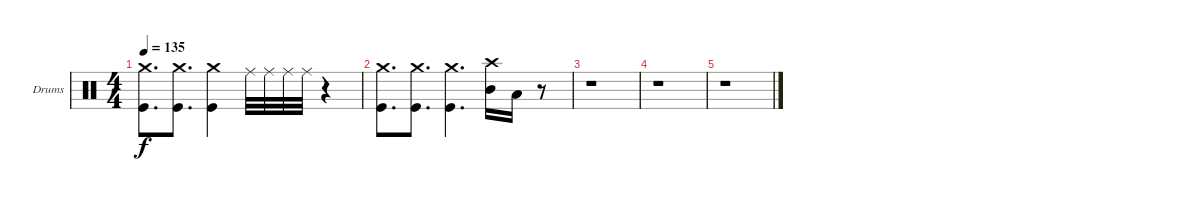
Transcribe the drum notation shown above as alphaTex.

\bracketExtendMode groupsimilarinstruments
\firstSystemTrackNameOrientation horizontal
\otherSystemsTrackNameOrientation horizontal
\track ("Drumkit" "Drums") {instrument percussion}
\staff {score}
\articulation defaults
\ts (4 4)
\tempo 135
\clef neutral
\ks c
("Kick (hit)" "Crash medium (hit)").8{d dy f} ("Kick (hit)" "Crash medium (hit)").8{d} ("Kick (hit)" "Crash medium (hit)").4 "Ride (middle)".32 "Ride (middle)".32 "Ride (middle)".32 "Ride (middle)".32 r.4 |
("Kick (hit)" "Crash medium (hit)").8{d} ("Kick (hit)" "Crash medium (hit)").8{d} ("Kick (hit)" "Crash medium (hit)").4{d} ("Mid Tom (hit)" "Crash high (hit)").16 "Low Tom (hit)".16 r.8 |
r.1 |
r.1 |
r.1
